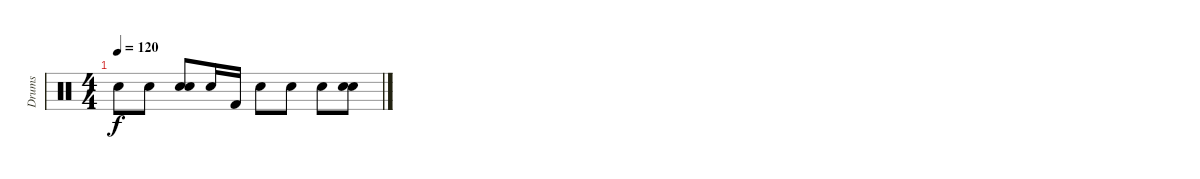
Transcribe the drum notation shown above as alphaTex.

\track ("Drums" "Drums") {instrument percussion}
\staff {score}
\articulation defaults
\ts (4 4)
\tempo 120
\clef neutral
\ks c "Snare (hit) 2".8{dy f volume 0} "Snare (hit) 2".8
("Electric Snare (hit)" "Snare (hit) 2").8 "Snare (hit) 2".16 "Kick (hit) 2".16 "Snare (hit) 2".8 "Snare (hit) 2".8 "Snare (hit) 2".8 ("Electric Snare (hit)" "Snare (hit) 2").8
